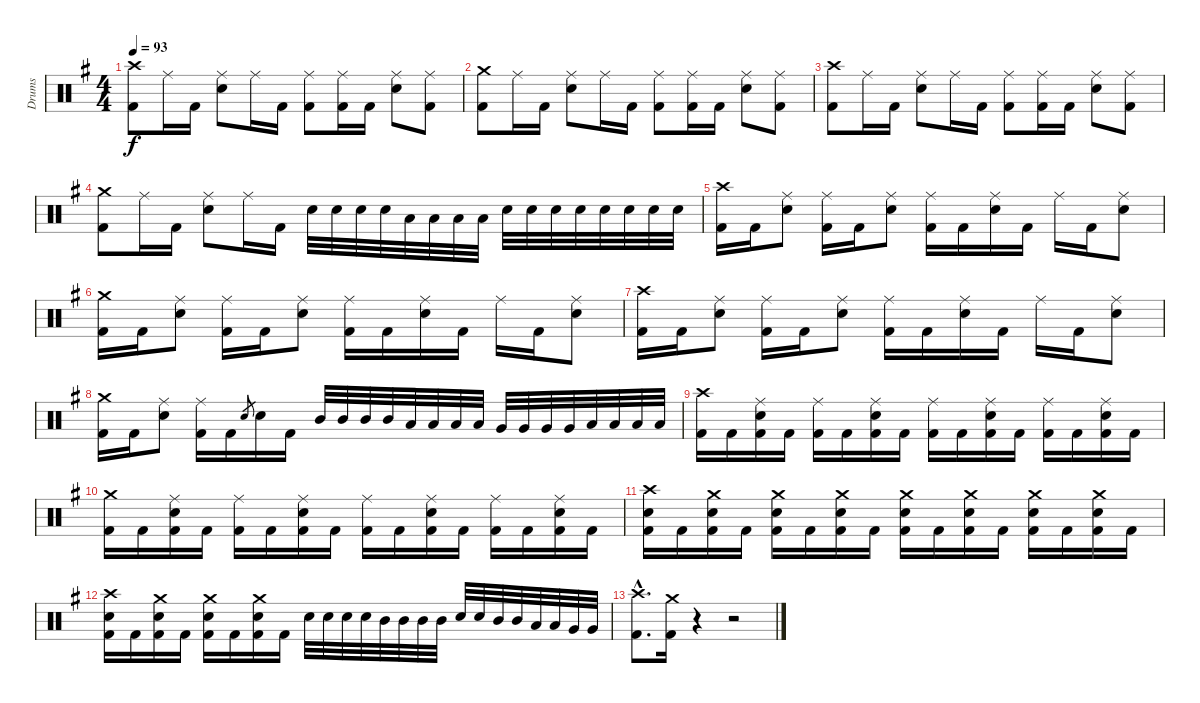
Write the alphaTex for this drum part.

\track ("Drums" "Drums") {instrument percussion}
\staff {score}
\articulation defaults
\ts (4 4)
\tempo 93
\clef neutral
\ks eminor
("Crash high (hit)" "Kick (hit) 2").8{dy f} "Ride (middle)".16 "Kick (hit) 2".16 ("Ride (middle)" "Snare (hit) 2").8 "Ride (middle)".16 "Kick (hit) 2".16 ("Ride (middle)" "Kick (hit) 2").8 ("Ride (middle)" "Kick (hit) 2").16 "Kick (hit) 2".16 ("Ride (middle)" "Snare (hit) 2").8 ("Ride (middle)" "Kick (hit) 2").8 |
("Crash medium (hit)" "Kick (hit) 2").8 "Ride (middle)".16 "Kick (hit) 2".16 ("Ride (middle)" "Snare (hit) 2").8 "Ride (middle)".16 "Kick (hit) 2".16 ("Ride (middle)" "Kick (hit) 2").8 ("Ride (middle)" "Kick (hit) 2").16 "Kick (hit) 2".16 ("Ride (middle)" "Snare (hit) 2").8 ("Ride (middle)" "Kick (hit) 2").8 |
("Crash high (hit)" "Kick (hit) 2").8 "Ride (middle)".16 "Kick (hit) 2".16 ("Ride (middle)" "Snare (hit) 2").8 "Ride (middle)".16 "Kick (hit) 2".16 ("Ride (middle)" "Kick (hit) 2").8 ("Ride (middle)" "Kick (hit) 2").16 "Kick (hit) 2".16 ("Ride (middle)" "Snare (hit) 2").8 ("Ride (middle)" "Kick (hit) 2").8 |
("Crash medium (hit)" "Kick (hit) 2").8 "Ride (middle)".16 "Kick (hit) 2".16 ("Ride (middle)" "Snare (hit) 2").8 "Ride (middle)".16 "Kick (hit) 2".16 "Snare (hit) 2".32 "Snare (hit) 2".32 "Snare (hit) 2".32 "Snare (hit) 2".32 "Low Tom (hit)".32 "Low Tom (hit)".32 "Low Tom (hit)".32 "Low Tom (hit)".32 "Snare (hit) 2".32 "Snare (hit) 2".32 "Snare (hit) 2".32 "Snare (hit) 2".32 "Snare (hit) 2".32 "Snare (hit) 2".32 "Snare (hit) 2".32 "Snare (hit) 2".32 |
("Crash high (hit)" "Kick (hit) 2").16 "Kick (hit) 2".16 ("Ride (middle)" "Snare (hit) 2").8 ("Ride (middle)" "Kick (hit) 2").16 "Kick (hit) 2".16 ("Ride (middle)" "Snare (hit) 2").8 ("Ride (middle)" "Kick (hit) 2").16 "Kick (hit) 2".16 ("Ride (middle)" "Snare (hit) 2").16 "Kick (hit) 2".16 "Ride (middle)".16 "Kick (hit) 2".16 ("Ride (middle)" "Snare (hit) 2").8 |
("Crash medium (hit)" "Kick (hit) 2").16 "Kick (hit) 2".16 ("Ride (middle)" "Snare (hit) 2").8 ("Ride (middle)" "Kick (hit) 2").16 "Kick (hit) 2".16 ("Ride (middle)" "Snare (hit) 2").8 ("Ride (middle)" "Kick (hit) 2").16 "Kick (hit) 2".16 ("Ride (middle)" "Snare (hit) 2").16 "Kick (hit) 2".16 "Ride (middle)".16 "Kick (hit) 2".16 ("Ride (middle)" "Snare (hit) 2").8 |
("Crash high (hit)" "Kick (hit) 2").16 "Kick (hit) 2".16 ("Ride (middle)" "Snare (hit) 2").8 ("Ride (middle)" "Kick (hit) 2").16 "Kick (hit) 2".16 ("Ride (middle)" "Snare (hit) 2").8 ("Ride (middle)" "Kick (hit) 2").16 "Kick (hit) 2".16 ("Ride (middle)" "Snare (hit) 2").16 "Kick (hit) 2".16 "Ride (middle)".16 "Kick (hit) 2".16 ("Ride (middle)" "Snare (hit) 2").8 |
("Crash medium (hit)" "Kick (hit) 2").16 "Kick (hit) 2".16 ("Ride (middle)" "Snare (hit) 2").8 ("Ride (middle)" "Kick (hit) 2").16 "Kick (hit) 2".16 "Snare (hit) 2".8{gr} "Snare (hit) 2".16 "Kick (hit) 2".16 "Mid Tom (hit)".32 "Mid Tom (hit)".32 "Mid Tom (hit)".32 "Mid Tom (hit)".32 "Low Tom (hit)".32 "Low Tom (hit)".32 "Low Tom (hit)".32 "Low Tom (hit)".32 "Very Low Tom (hit)".32 "Very Low Tom (hit)".32 "Very Low Tom (hit)".32 "Very Low Tom (hit)".32 "Low Floor Tom (hit)".32 "Low Floor Tom (hit)".32 "Low Floor Tom (hit)".32 "Low Floor Tom (hit)".32 |
("Crash high (hit)" "Kick (hit) 2").16 "Kick (hit) 2".16 ("Ride (middle)" "Snare (hit) 2" "Kick (hit) 2").16 "Kick (hit) 2".16 ("Ride (middle)" "Kick (hit) 2").16 "Kick (hit) 2".16 ("Ride (middle)" "Snare (hit) 2" "Kick (hit) 2").16 "Kick (hit) 2".16 ("Ride (middle)" "Kick (hit) 2").16 "Kick (hit) 2".16 ("Ride (middle)" "Snare (hit) 2" "Kick (hit) 2").16 "Kick (hit) 2".16 ("Ride (middle)" "Kick (hit) 2").16 "Kick (hit) 2".16 ("Ride (middle)" "Snare (hit) 2" "Kick (hit) 2").16 "Kick (hit) 2".16 |
("Crash medium (hit)" "Kick (hit) 2").16 "Kick (hit) 2".16 ("Ride (middle)" "Snare (hit) 2" "Kick (hit) 2").16 "Kick (hit) 2".16 ("Ride (middle)" "Kick (hit) 2").16 "Kick (hit) 2".16 ("Ride (middle)" "Snare (hit) 2" "Kick (hit) 2").16 "Kick (hit) 2".16 ("Ride (middle)" "Kick (hit) 2").16 "Kick (hit) 2".16 ("Ride (middle)" "Snare (hit) 2" "Kick (hit) 2").16 "Kick (hit) 2".16 ("Ride (middle)" "Kick (hit) 2").16 "Kick (hit) 2".16 ("Ride (middle)" "Snare (hit) 2" "Kick (hit) 2").16 "Kick (hit) 2".16 |
("Crash high (hit)" "Snare (hit) 2" "Kick (hit) 2").16 "Kick (hit) 2".16 ("Crash medium (hit)" "Snare (hit) 2" "Kick (hit) 2").16 "Kick (hit) 2".16 ("Crash medium (hit)" "Snare (hit) 2" "Kick (hit) 2").16 "Kick (hit) 2".16 ("Crash medium (hit)" "Snare (hit) 2" "Kick (hit) 2").16 "Kick (hit) 2".16 ("Crash medium (hit)" "Snare (hit) 2" "Kick (hit) 2").16 "Kick (hit) 2".16 ("Crash medium (hit)" "Snare (hit) 2" "Kick (hit) 2").16 "Kick (hit) 2".16 ("Crash medium (hit)" "Snare (hit) 2" "Kick (hit) 2").16 "Kick (hit) 2".16 ("Crash medium (hit)" "Snare (hit) 2" "Kick (hit) 2").16 "Kick (hit) 2".16 |
("Crash high (hit)" "Snare (hit) 2" "Kick (hit) 2").16 "Kick (hit) 2".16 ("Crash medium (hit)" "Snare (hit) 2" "Kick (hit) 2").16 "Kick (hit) 2".16 ("Crash medium (hit)" "Snare (hit) 2" "Kick (hit) 2").16 "Kick (hit) 2".16 ("Crash medium (hit)" "Snare (hit) 2" "Kick (hit) 2").16 "Kick (hit) 2".16 "Snare (hit) 2".32 "Snare (hit) 2".32 "Snare (hit) 2".32 "Snare (hit) 2".32 "Mid Tom (hit)".32 "Mid Tom (hit)".32 "Mid Tom (hit)".32 "Mid Tom (hit)".32 "Snare (hit) 2".32 "Snare (hit) 2".32 "Mid Tom (hit)".32 "Mid Tom (hit)".32 "Low Tom (hit)".32 "Low Tom (hit)".32 "Very Low Tom (hit)".32 "Very Low Tom (hit)".32 |
("Crash high (hit)"{hac} "Kick (hit) 2"{hac}).8{d} ("Crash medium (hit)" "Kick (hit) 2").16 r.4 r.2
